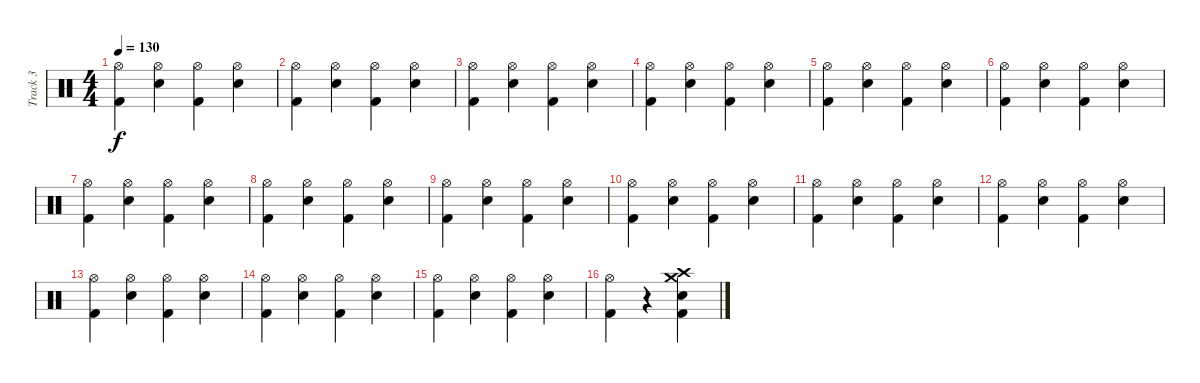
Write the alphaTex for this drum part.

\track ("Track 3" "Track 3") {instrument percussion}
\staff {score}
\articulation defaults
\ts (4 4)
\tempo 130
\clef neutral
\ks c
("Hi-Hat (open)" "Kick (hit) 2").4{dy f} ("Hi-Hat (open)" "Snare (hit) 2").4 ("Hi-Hat (open)" "Kick (hit) 2").4 ("Hi-Hat (open)" "Snare (hit) 2").4 |
("Hi-Hat (open)" "Kick (hit) 2").4 ("Hi-Hat (open)" "Snare (hit) 2").4 ("Hi-Hat (open)" "Kick (hit) 2").4 ("Hi-Hat (open)" "Snare (hit) 2").4 |
("Hi-Hat (open)" "Kick (hit) 2").4 ("Hi-Hat (open)" "Snare (hit) 2").4 ("Hi-Hat (open)" "Kick (hit) 2").4 ("Hi-Hat (open)" "Snare (hit) 2").4 |
("Hi-Hat (open)" "Kick (hit) 2").4 ("Hi-Hat (open)" "Snare (hit) 2").4 ("Hi-Hat (open)" "Kick (hit) 2").4 ("Hi-Hat (open)" "Snare (hit) 2").4 |
("Hi-Hat (open)" "Kick (hit) 2").4 ("Hi-Hat (open)" "Snare (hit) 2").4 ("Hi-Hat (open)" "Kick (hit) 2").4 ("Hi-Hat (open)" "Snare (hit) 2").4 |
("Hi-Hat (open)" "Kick (hit) 2").4 ("Hi-Hat (open)" "Snare (hit) 2").4 ("Hi-Hat (open)" "Kick (hit) 2").4 ("Hi-Hat (open)" "Snare (hit) 2").4 |
("Hi-Hat (open)" "Kick (hit) 2").4 ("Hi-Hat (open)" "Snare (hit) 2").4 ("Hi-Hat (open)" "Kick (hit) 2").4 ("Hi-Hat (open)" "Snare (hit) 2").4 |
("Hi-Hat (open)" "Kick (hit) 2").4 ("Hi-Hat (open)" "Snare (hit) 2").4 ("Hi-Hat (open)" "Kick (hit) 2").4 ("Hi-Hat (open)" "Snare (hit) 2").4 |
("Hi-Hat (open)" "Kick (hit) 2").4 ("Hi-Hat (open)" "Snare (hit) 2").4 ("Hi-Hat (open)" "Kick (hit) 2").4 ("Hi-Hat (open)" "Snare (hit) 2").4 |
("Hi-Hat (open)" "Kick (hit) 2").4 ("Hi-Hat (open)" "Snare (hit) 2").4 ("Hi-Hat (open)" "Kick (hit) 2").4 ("Hi-Hat (open)" "Snare (hit) 2").4 |
("Hi-Hat (open)" "Kick (hit) 2").4 ("Hi-Hat (open)" "Snare (hit) 2").4 ("Hi-Hat (open)" "Kick (hit) 2").4 ("Hi-Hat (open)" "Snare (hit) 2").4 |
("Hi-Hat (open)" "Kick (hit) 2").4 ("Hi-Hat (open)" "Snare (hit) 2").4 ("Hi-Hat (open)" "Kick (hit) 2").4 ("Hi-Hat (open)" "Snare (hit) 2").4 |
("Hi-Hat (open)" "Kick (hit) 2").4 ("Hi-Hat (open)" "Snare (hit) 2").4 ("Hi-Hat (open)" "Kick (hit) 2").4 ("Hi-Hat (open)" "Snare (hit) 2").4 |
("Hi-Hat (open)" "Kick (hit) 2").4 ("Hi-Hat (open)" "Snare (hit) 2").4 ("Hi-Hat (open)" "Kick (hit) 2").4 ("Hi-Hat (open)" "Snare (hit) 2").4 |
("Hi-Hat (open)" "Kick (hit) 2").4 ("Hi-Hat (open)" "Snare (hit) 2").4 ("Hi-Hat (open)" "Kick (hit) 2").4 ("Hi-Hat (open)" "Snare (hit) 2").4 |
("Hi-Hat (open)" "Kick (hit) 2").4 r.4 ("Crash medium (hit)" "Crash high (hit)" "Snare (hit) 2" "Kick (hit) 2").4
